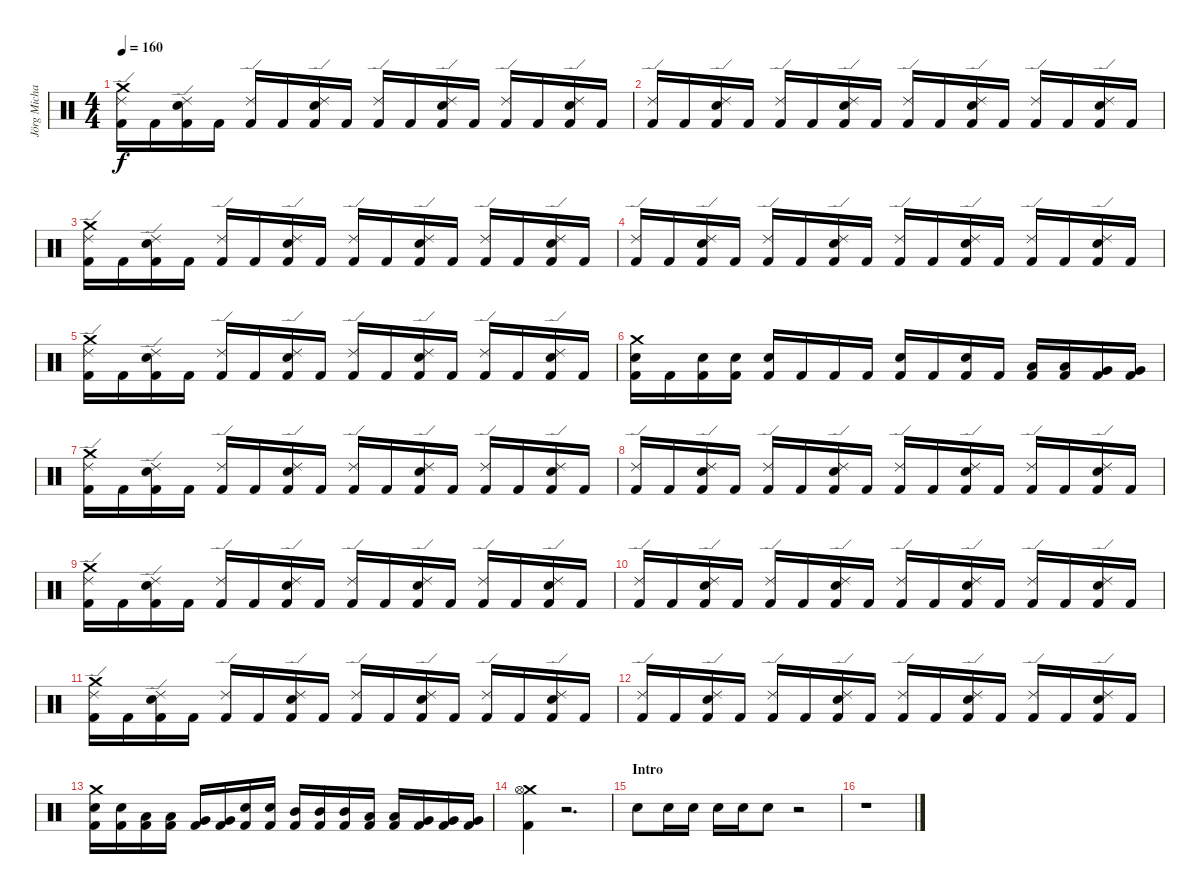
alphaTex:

\track ("Jörg Michael" "Jörg Micha") {instrument percussion}
\staff {score}
\articulation defaults
\ts (4 4)
\tempo 160
\clef neutral
\ks c
("Crash medium (hit)" "Ride (edge) 2" "Kick (hit) 2").16{dy f} "Kick (hit) 2".16 ("Electric Snare (hit)" "Ride (edge) 2" "Kick (hit) 2").16 "Kick (hit) 2".16 ("Ride (edge) 2" "Kick (hit) 2").16 "Kick (hit) 2".16 ("Electric Snare (hit)" "Ride (edge) 2" "Kick (hit) 2").16 "Kick (hit) 2".16 ("Ride (edge) 2" "Kick (hit) 2").16 "Kick (hit) 2".16 ("Electric Snare (hit)" "Ride (edge) 2" "Kick (hit) 2").16 "Kick (hit) 2".16 ("Ride (edge) 2" "Kick (hit) 2").16 "Kick (hit) 2".16 ("Electric Snare (hit)" "Ride (edge) 2" "Kick (hit) 2").16 "Kick (hit) 2".16 |
("Ride (edge) 2" "Kick (hit) 2").16 "Kick (hit) 2".16 ("Electric Snare (hit)" "Ride (edge) 2" "Kick (hit) 2").16 "Kick (hit) 2".16 ("Ride (edge) 2" "Kick (hit) 2").16 "Kick (hit) 2".16 ("Electric Snare (hit)" "Ride (edge) 2" "Kick (hit) 2").16 "Kick (hit) 2".16 ("Ride (edge) 2" "Kick (hit) 2").16 "Kick (hit) 2".16 ("Electric Snare (hit)" "Ride (edge) 2" "Kick (hit) 2").16 "Kick (hit) 2".16 ("Ride (edge) 2" "Kick (hit) 2").16 "Kick (hit) 2".16 ("Electric Snare (hit)" "Ride (edge) 2" "Kick (hit) 2").16 "Kick (hit) 2".16 |
("Crash medium (hit)" "Ride (edge) 2" "Kick (hit) 2").16 "Kick (hit) 2".16 ("Electric Snare (hit)" "Ride (edge) 2" "Kick (hit) 2").16 "Kick (hit) 2".16 ("Ride (edge) 2" "Kick (hit) 2").16 "Kick (hit) 2".16 ("Electric Snare (hit)" "Ride (edge) 2" "Kick (hit) 2").16 "Kick (hit) 2".16 ("Ride (edge) 2" "Kick (hit) 2").16 "Kick (hit) 2".16 ("Electric Snare (hit)" "Ride (edge) 2" "Kick (hit) 2").16 "Kick (hit) 2".16 ("Ride (edge) 2" "Kick (hit) 2").16 "Kick (hit) 2".16 ("Electric Snare (hit)" "Ride (edge) 2" "Kick (hit) 2").16 "Kick (hit) 2".16 |
("Ride (edge) 2" "Kick (hit) 2").16 "Kick (hit) 2".16 ("Electric Snare (hit)" "Ride (edge) 2" "Kick (hit) 2").16 "Kick (hit) 2".16 ("Ride (edge) 2" "Kick (hit) 2").16 "Kick (hit) 2".16 ("Electric Snare (hit)" "Ride (edge) 2" "Kick (hit) 2").16 "Kick (hit) 2".16 ("Ride (edge) 2" "Kick (hit) 2").16 "Kick (hit) 2".16 ("Electric Snare (hit)" "Ride (edge) 2" "Kick (hit) 2").16 "Kick (hit) 2".16 ("Ride (edge) 2" "Kick (hit) 2").16 "Kick (hit) 2".16 ("Electric Snare (hit)" "Ride (edge) 2" "Kick (hit) 2").16 "Kick (hit) 2".16 |
("Crash medium (hit)" "Ride (edge) 2" "Kick (hit) 2").16 "Kick (hit) 2".16 ("Electric Snare (hit)" "Ride (edge) 2" "Kick (hit) 2").16 "Kick (hit) 2".16 ("Ride (edge) 2" "Kick (hit) 2").16 "Kick (hit) 2".16 ("Electric Snare (hit)" "Ride (edge) 2" "Kick (hit) 2").16 "Kick (hit) 2".16 ("Ride (edge) 2" "Kick (hit) 2").16 "Kick (hit) 2".16 ("Electric Snare (hit)" "Ride (edge) 2" "Kick (hit) 2").16 "Kick (hit) 2".16 ("Ride (edge) 2" "Kick (hit) 2").16 "Kick (hit) 2".16 ("Electric Snare (hit)" "Ride (edge) 2" "Kick (hit) 2").16 "Kick (hit) 2".16 |
("Crash medium (hit)" "Electric Snare (hit)" "Kick (hit) 2").16 "Kick (hit) 2".16 ("Electric Snare (hit)" "Kick (hit) 2").16 ("Electric Snare (hit)" "Kick (hit) 2").16 ("Electric Snare (hit)" "Kick (hit) 2").16 "Kick (hit) 2".16 "Kick (hit) 2".16 "Kick (hit) 2".16 ("Electric Snare (hit)" "Kick (hit) 2").16 "Kick (hit) 2".16 ("Electric Snare (hit)" "Kick (hit) 2").16 "Kick (hit) 2".16 ("Low Tom (hit)" "Kick (hit) 2").16 ("Low Tom (hit)" "Kick (hit) 2").16 ("Very Low Tom (hit)" "Kick (hit) 2").16 ("Very Low Tom (hit)" "Kick (hit) 2").16 |
("Crash medium (hit)" "Ride (edge) 2" "Kick (hit) 2").16 "Kick (hit) 2".16 ("Electric Snare (hit)" "Ride (edge) 2" "Kick (hit) 2").16 "Kick (hit) 2".16 ("Ride (edge) 2" "Kick (hit) 2").16 "Kick (hit) 2".16 ("Electric Snare (hit)" "Ride (edge) 2" "Kick (hit) 2").16 "Kick (hit) 2".16 ("Ride (edge) 2" "Kick (hit) 2").16 "Kick (hit) 2".16 ("Electric Snare (hit)" "Ride (edge) 2" "Kick (hit) 2").16 "Kick (hit) 2".16 ("Ride (edge) 2" "Kick (hit) 2").16 "Kick (hit) 2".16 ("Electric Snare (hit)" "Ride (edge) 2" "Kick (hit) 2").16 "Kick (hit) 2".16 |
("Ride (edge) 2" "Kick (hit) 2").16 "Kick (hit) 2".16 ("Electric Snare (hit)" "Ride (edge) 2" "Kick (hit) 2").16 "Kick (hit) 2".16 ("Ride (edge) 2" "Kick (hit) 2").16 "Kick (hit) 2".16 ("Electric Snare (hit)" "Ride (edge) 2" "Kick (hit) 2").16 "Kick (hit) 2".16 ("Ride (edge) 2" "Kick (hit) 2").16 "Kick (hit) 2".16 ("Electric Snare (hit)" "Ride (edge) 2" "Kick (hit) 2").16 "Kick (hit) 2".16 ("Ride (edge) 2" "Kick (hit) 2").16 "Kick (hit) 2".16 ("Electric Snare (hit)" "Ride (edge) 2" "Kick (hit) 2").16 "Kick (hit) 2".16 |
("Crash medium (hit)" "Ride (edge) 2" "Kick (hit) 2").16 "Kick (hit) 2".16 ("Electric Snare (hit)" "Ride (edge) 2" "Kick (hit) 2").16 "Kick (hit) 2".16 ("Ride (edge) 2" "Kick (hit) 2").16 "Kick (hit) 2".16 ("Electric Snare (hit)" "Ride (edge) 2" "Kick (hit) 2").16 "Kick (hit) 2".16 ("Ride (edge) 2" "Kick (hit) 2").16 "Kick (hit) 2".16 ("Electric Snare (hit)" "Ride (edge) 2" "Kick (hit) 2").16 "Kick (hit) 2".16 ("Ride (edge) 2" "Kick (hit) 2").16 "Kick (hit) 2".16 ("Electric Snare (hit)" "Ride (edge) 2" "Kick (hit) 2").16 "Kick (hit) 2".16 |
("Ride (edge) 2" "Kick (hit) 2").16 "Kick (hit) 2".16 ("Electric Snare (hit)" "Ride (edge) 2" "Kick (hit) 2").16 "Kick (hit) 2".16 ("Ride (edge) 2" "Kick (hit) 2").16 "Kick (hit) 2".16 ("Electric Snare (hit)" "Ride (edge) 2" "Kick (hit) 2").16 "Kick (hit) 2".16 ("Ride (edge) 2" "Kick (hit) 2").16 "Kick (hit) 2".16 ("Electric Snare (hit)" "Ride (edge) 2" "Kick (hit) 2").16 "Kick (hit) 2".16 ("Ride (edge) 2" "Kick (hit) 2").16 "Kick (hit) 2".16 ("Electric Snare (hit)" "Ride (edge) 2" "Kick (hit) 2").16 "Kick (hit) 2".16 |
("Crash medium (hit)" "Ride (edge) 2" "Kick (hit) 2").16 "Kick (hit) 2".16 ("Electric Snare (hit)" "Ride (edge) 2" "Kick (hit) 2").16 "Kick (hit) 2".16 ("Ride (edge) 2" "Kick (hit) 2").16 "Kick (hit) 2".16 ("Electric Snare (hit)" "Ride (edge) 2" "Kick (hit) 2").16 "Kick (hit) 2".16 ("Ride (edge) 2" "Kick (hit) 2").16 "Kick (hit) 2".16 ("Electric Snare (hit)" "Ride (edge) 2" "Kick (hit) 2").16 "Kick (hit) 2".16 ("Ride (edge) 2" "Kick (hit) 2").16 "Kick (hit) 2".16 ("Electric Snare (hit)" "Ride (edge) 2" "Kick (hit) 2").16 "Kick (hit) 2".16 |
("Ride (edge) 2" "Kick (hit) 2").16 "Kick (hit) 2".16 ("Electric Snare (hit)" "Ride (edge) 2" "Kick (hit) 2").16 "Kick (hit) 2".16 ("Ride (edge) 2" "Kick (hit) 2").16 "Kick (hit) 2".16 ("Electric Snare (hit)" "Ride (edge) 2" "Kick (hit) 2").16 "Kick (hit) 2".16 ("Ride (edge) 2" "Kick (hit) 2").16 "Kick (hit) 2".16 ("Electric Snare (hit)" "Ride (edge) 2" "Kick (hit) 2").16 "Kick (hit) 2".16 ("Ride (edge) 2" "Kick (hit) 2").16 "Kick (hit) 2".16 ("Electric Snare (hit)" "Ride (edge) 2" "Kick (hit) 2").16 "Kick (hit) 2".16 |
("Crash medium (hit)" "Electric Snare (hit)" "Kick (hit) 2").16 ("Electric Snare (hit)" "Kick (hit) 2").16 ("Low Tom (hit)" "Kick (hit) 2").16 ("Low Tom (hit)" "Kick (hit) 2").16 ("Very Low Tom (hit)" "Kick (hit) 2").16 ("Very Low Tom (hit)" "Kick (hit) 2").16 ("Electric Snare (hit)" "Kick (hit) 2").16 ("Electric Snare (hit)" "Kick (hit) 2").16 ("Mid Tom (hit)" "Kick (hit) 2").16 ("Mid Tom (hit)" "Kick (hit) 2").16 ("Mid Tom (hit)" "Kick (hit) 2").16 ("Low Tom (hit)" "Kick (hit) 2").16 ("Low Tom (hit)" "Kick (hit) 2").16 ("Very Low Tom (hit)" "Kick (hit) 2").16 ("Very Low Tom (hit)" "Kick (hit) 2").16 ("Very Low Tom (hit)" "Kick (hit) 2").16 |
("Crash medium (hit)" "Hi-Hat (open)" "Kick (hit) 2").4 r.2{d} |
\section ("" "Intro")
"Electric Snare (hit)".8{volume 10} "Electric Snare (hit)".16 "Electric Snare (hit)".16 "Electric Snare (hit)".16 "Electric Snare (hit)".16 "Electric Snare (hit)".8 r.2 |
r.1
